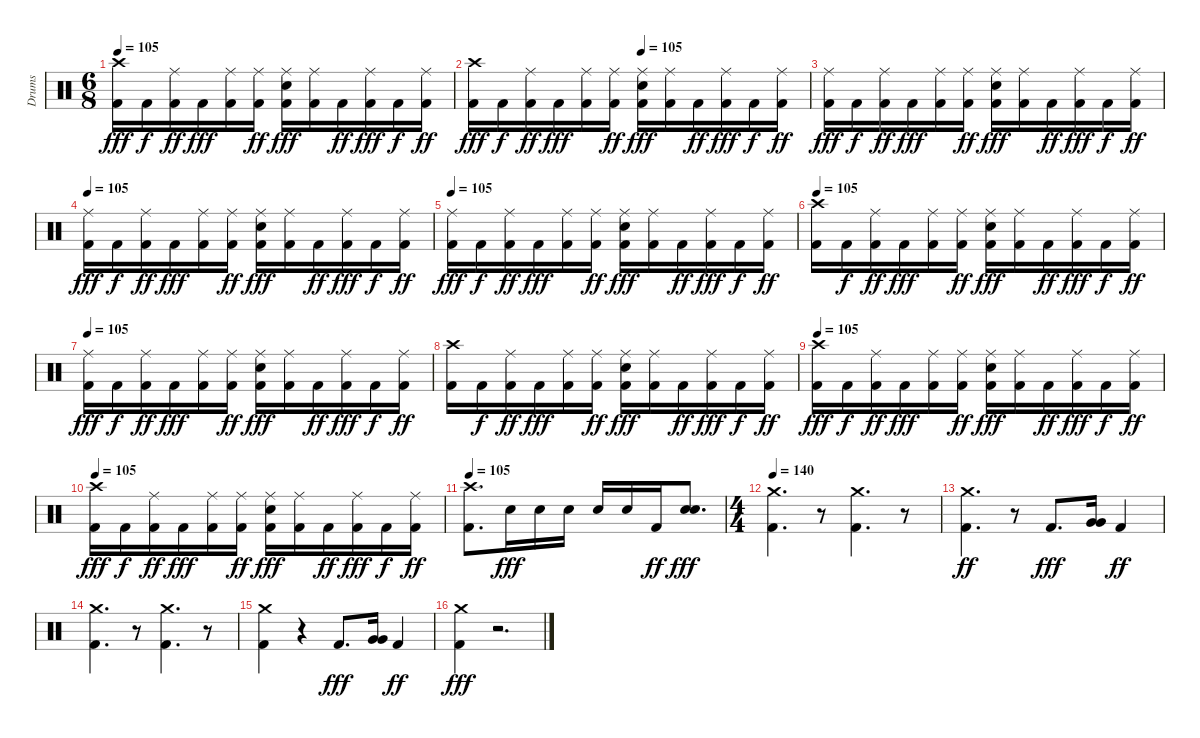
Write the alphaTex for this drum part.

\track ("Drums" "Drums") {instrument percussion}
\staff {score}
\articulation defaults
\ts (6 8)
\tempo 105
\clef neutral
\ks c
("Kick (hit) 2" "Crash high (hit)").16{dy fff} "Kick (hit) 2".16{dy f} ("Ride (middle)" "Kick (hit) 2").16{dy ff} "Kick (hit) 2".16{dy fff} ("Ride (middle)" "Kick (hit) 2").16 ("Ride (middle)" "Kick (hit) 2").16{dy ff} ("Ride (middle)" "Electric Snare (hit)" "Kick (hit) 2").16{dy fff} ("Ride (middle)" "Kick (hit) 2").16 "Kick (hit) 2".16{dy ff} ("Ride (middle)" "Kick (hit) 2").16{dy fff} "Kick (hit) 2".16{dy f} ("Ride (middle)" "Kick (hit) 2").16{dy ff} |
\tempo (105 0.5)
("Kick (hit) 2" "Crash high (hit)").16{dy fff} "Kick (hit) 2".16{dy f} ("Ride (middle)" "Kick (hit) 2").16{dy ff} "Kick (hit) 2".16{dy fff} ("Ride (middle)" "Kick (hit) 2").16 ("Ride (middle)" "Kick (hit) 2").16{dy ff} ("Ride (middle)" "Electric Snare (hit)" "Kick (hit) 2").16{dy fff} ("Ride (middle)" "Kick (hit) 2").16 "Kick (hit) 2".16{dy ff} ("Ride (middle)" "Kick (hit) 2").16{dy fff} "Kick (hit) 2".16{dy f} ("Ride (middle)" "Kick (hit) 2").16{dy ff} |
("Ride (middle)" "Kick (hit) 2").16{dy fff} "Kick (hit) 2".16{dy f} ("Ride (middle)" "Kick (hit) 2").16{dy ff} "Kick (hit) 2".16{dy fff} ("Ride (middle)" "Kick (hit) 2").16 ("Ride (middle)" "Kick (hit) 2").16{dy ff} ("Ride (middle)" "Electric Snare (hit)" "Kick (hit) 2").16{dy fff} ("Ride (middle)" "Kick (hit) 2").16 "Kick (hit) 2".16{dy ff} ("Ride (middle)" "Kick (hit) 2").16{dy fff} "Kick (hit) 2".16{dy f} ("Ride (middle)" "Kick (hit) 2").16{dy ff} |
\tempo 105
("Ride (middle)" "Kick (hit) 2").16{dy fff} "Kick (hit) 2".16{dy f} ("Ride (middle)" "Kick (hit) 2").16{dy ff} "Kick (hit) 2".16{dy fff} ("Ride (middle)" "Kick (hit) 2").16 ("Ride (middle)" "Kick (hit) 2").16{dy ff} ("Ride (middle)" "Electric Snare (hit)" "Kick (hit) 2").16{dy fff} ("Ride (middle)" "Kick (hit) 2").16 "Kick (hit) 2".16{dy ff} ("Ride (middle)" "Kick (hit) 2").16{dy fff} "Kick (hit) 2".16{dy f} ("Ride (middle)" "Kick (hit) 2").16{dy ff} |
\tempo 105
("Ride (middle)" "Kick (hit) 2").16{dy fff} "Kick (hit) 2".16{dy f} ("Ride (middle)" "Kick (hit) 2").16{dy ff} "Kick (hit) 2".16{dy fff} ("Ride (middle)" "Kick (hit) 2").16 ("Ride (middle)" "Kick (hit) 2").16{dy ff} ("Ride (middle)" "Electric Snare (hit)" "Kick (hit) 2").16{dy fff} ("Ride (middle)" "Kick (hit) 2").16 "Kick (hit) 2".16{dy ff} ("Ride (middle)" "Kick (hit) 2").16{dy fff} "Kick (hit) 2".16{dy f} ("Ride (middle)" "Kick (hit) 2").16{dy ff} |
\tempo 105
("Kick (hit) 2" "Crash high (hit)").16 "Kick (hit) 2".16{dy f} ("Ride (middle)" "Kick (hit) 2").16{dy ff} "Kick (hit) 2".16{dy fff} ("Ride (middle)" "Kick (hit) 2").16 ("Ride (middle)" "Kick (hit) 2").16{dy ff} ("Ride (middle)" "Electric Snare (hit)" "Kick (hit) 2").16{dy fff} ("Ride (middle)" "Kick (hit) 2").16 "Kick (hit) 2".16{dy ff} ("Ride (middle)" "Kick (hit) 2").16{dy fff} "Kick (hit) 2".16{dy f} ("Ride (middle)" "Kick (hit) 2").16{dy ff} |
\tempo 105
("Ride (middle)" "Kick (hit) 2").16{dy fff} "Kick (hit) 2".16{dy f} ("Ride (middle)" "Kick (hit) 2").16{dy ff} "Kick (hit) 2".16{dy fff} ("Ride (middle)" "Kick (hit) 2").16 ("Ride (middle)" "Kick (hit) 2").16{dy ff} ("Ride (middle)" "Electric Snare (hit)" "Kick (hit) 2").16{dy fff} ("Ride (middle)" "Kick (hit) 2").16 "Kick (hit) 2".16{dy ff} ("Ride (middle)" "Kick (hit) 2").16{dy fff} "Kick (hit) 2".16{dy f} ("Ride (middle)" "Kick (hit) 2").16{dy ff} |
("Kick (hit) 2" "Crash high (hit)").16 "Kick (hit) 2".16{dy f} ("Ride (middle)" "Kick (hit) 2").16{dy ff} "Kick (hit) 2".16{dy fff} ("Ride (middle)" "Kick (hit) 2").16 ("Ride (middle)" "Kick (hit) 2").16{dy ff} ("Ride (middle)" "Electric Snare (hit)" "Kick (hit) 2").16{dy fff} ("Ride (middle)" "Kick (hit) 2").16 "Kick (hit) 2".16{dy ff} ("Ride (middle)" "Kick (hit) 2").16{dy fff} "Kick (hit) 2".16{dy f} ("Ride (middle)" "Kick (hit) 2").16{dy ff} |
\tempo 105
("Kick (hit) 2" "Crash high (hit)").16{dy fff} "Kick (hit) 2".16{dy f} ("Ride (middle)" "Kick (hit) 2").16{dy ff} "Kick (hit) 2".16{dy fff} ("Ride (middle)" "Kick (hit) 2").16 ("Ride (middle)" "Kick (hit) 2").16{dy ff} ("Ride (middle)" "Electric Snare (hit)" "Kick (hit) 2").16{dy fff} ("Ride (middle)" "Kick (hit) 2").16 "Kick (hit) 2".16{dy ff} ("Ride (middle)" "Kick (hit) 2").16{dy fff} "Kick (hit) 2".16{dy f} ("Ride (middle)" "Kick (hit) 2").16{dy ff} |
\tempo 105
("Kick (hit) 2" "Crash high (hit)").16{dy fff} "Kick (hit) 2".16{dy f} ("Ride (middle)" "Kick (hit) 2").16{dy ff} "Kick (hit) 2".16{dy fff} ("Ride (middle)" "Kick (hit) 2").16 ("Ride (middle)" "Kick (hit) 2").16{dy ff} ("Ride (middle)" "Electric Snare (hit)" "Kick (hit) 2").16{dy fff} ("Ride (middle)" "Kick (hit) 2").16 "Kick (hit) 2".16{dy ff} ("Ride (middle)" "Kick (hit) 2").16{dy fff} "Kick (hit) 2".16{dy f} ("Ride (middle)" "Kick (hit) 2").16{dy ff} |
\tempo 105
("Kick (hit) 2" "Crash high (hit)").8{d} "Electric Snare (hit)".16{dy fff} "Electric Snare (hit)".16 "Electric Snare (hit)".16 "Electric Snare (hit)".16 "Electric Snare (hit)".16 "Kick (hit) 2".16{dy ff} ("Snare (hit) 2" "Electric Snare (hit)").8{d dy fff} |
\ts (4 4)
\tempo 140
("Kick (hit) 2" "Crash medium (hit)").4{d} r.8 ("Kick (hit) 2" "Crash medium (hit)").4{d} r.8 |
("Kick (hit) 2" "Crash medium (hit)").4{d dy ff} r.8 "Kick (hit) 2".8{d dy fff} ("Very Low Tom (hit)" "Very Low Tom (hit)").16 "Kick (hit) 2".4{dy ff} |
("Kick (hit) 2" "Crash medium (hit)").4{d} r.8 ("Kick (hit) 2" "Crash medium (hit)").4{d} r.8 |
("Kick (hit) 2" "Crash medium (hit)").4 r.4 "Kick (hit) 2".8{d dy fff} ("Very Low Tom (hit)" "Very Low Tom (hit)").16 "Kick (hit) 2".4{dy ff} |
("Kick (hit) 2" "Crash medium (hit)").4{dy fff} r.2{d}
